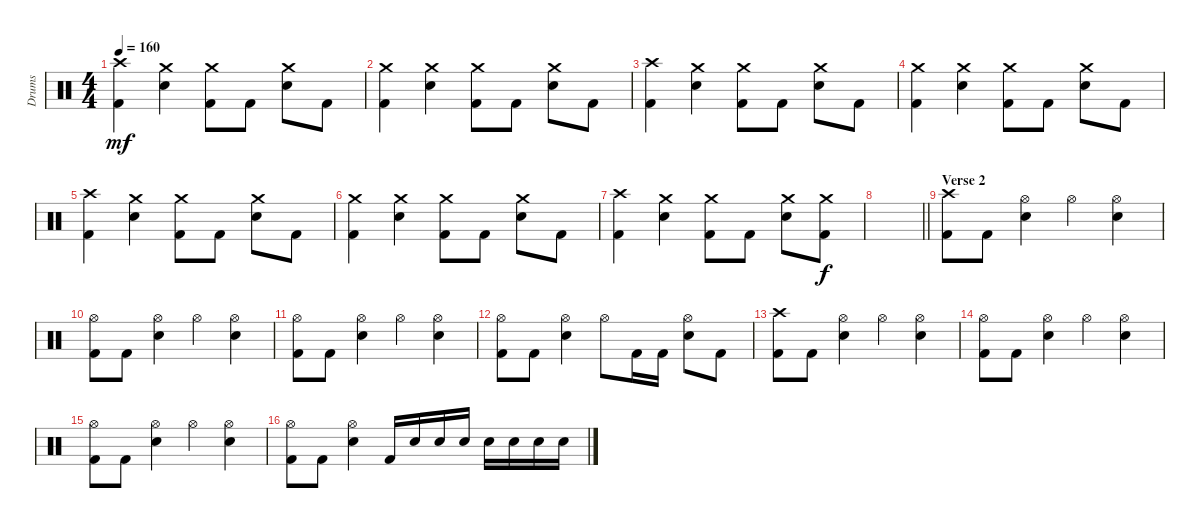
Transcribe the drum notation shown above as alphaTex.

\track ("Drums" "Drums") {instrument percussion}
\staff {score}
\articulation defaults
\ts (4 4)
\tempo 160
\clef neutral
\ks c
("Crash high (hit)" "Kick (hit) 2").4{dy mf} ("Crash medium (hit)" "Electric Snare (hit)").4 ("Crash medium (hit)" "Kick (hit) 2").8 "Kick (hit) 2".8 ("Crash medium (hit)" "Electric Snare (hit)").8 "Kick (hit) 2".8 |
("Crash medium (hit)" "Kick (hit) 2").4 ("Crash medium (hit)" "Electric Snare (hit)").4 ("Crash medium (hit)" "Kick (hit) 2").8 "Kick (hit) 2".8 ("Crash medium (hit)" "Electric Snare (hit)").8 "Kick (hit) 2".8 |
("Crash high (hit)" "Kick (hit) 2").4 ("Crash medium (hit)" "Electric Snare (hit)").4 ("Crash medium (hit)" "Kick (hit) 2").8 "Kick (hit) 2".8 ("Crash medium (hit)" "Electric Snare (hit)").8 "Kick (hit) 2".8 |
("Crash medium (hit)" "Kick (hit) 2").4 ("Crash medium (hit)" "Electric Snare (hit)").4 ("Crash medium (hit)" "Kick (hit) 2").8 "Kick (hit) 2".8 ("Crash medium (hit)" "Electric Snare (hit)").8 "Kick (hit) 2".8 |
("Crash high (hit)" "Kick (hit) 2").4 ("Crash medium (hit)" "Electric Snare (hit)").4 ("Crash medium (hit)" "Kick (hit) 2").8 "Kick (hit) 2".8 ("Crash medium (hit)" "Electric Snare (hit)").8 "Kick (hit) 2".8 |
("Crash medium (hit)" "Kick (hit) 2").4 ("Crash medium (hit)" "Electric Snare (hit)").4 ("Crash medium (hit)" "Kick (hit) 2").8 "Kick (hit) 2".8 ("Crash medium (hit)" "Electric Snare (hit)").8 "Kick (hit) 2".8 |
("Crash high (hit)" "Kick (hit) 2").4 ("Crash medium (hit)" "Electric Snare (hit)").4 ("Crash medium (hit)" "Kick (hit) 2").8 "Kick (hit) 2".8 ("Crash medium (hit)" "Electric Snare (hit)").8 ("Crash medium (hit)" "Kick (hit) 2").8{dy f} |
\barLineRight lightlight
|
\section ("" "Verse 2")
("Crash high (hit)" "Kick (hit) 2").8 "Kick (hit) 2".8 ("Hi-Hat (open)" "Electric Snare (hit)").4 "Hi-Hat (open)".4 ("Hi-Hat (open)" "Electric Snare (hit)").4 |
("Hi-Hat (open)" "Kick (hit) 2").8 "Kick (hit) 2".8 ("Hi-Hat (open)" "Electric Snare (hit)").4 "Hi-Hat (open)".4 ("Hi-Hat (open)" "Electric Snare (hit)").4 |
("Hi-Hat (open)" "Kick (hit) 2").8 "Kick (hit) 2".8 ("Hi-Hat (open)" "Electric Snare (hit)").4 "Hi-Hat (open)".4 ("Hi-Hat (open)" "Electric Snare (hit)").4 |
("Hi-Hat (open)" "Kick (hit) 2").8 "Kick (hit) 2".8 ("Hi-Hat (open)" "Electric Snare (hit)").4 "Hi-Hat (open)".8 "Kick (hit) 2".16 "Kick (hit) 2".16 ("Hi-Hat (open)" "Electric Snare (hit)").8 "Kick (hit) 2".8 |
("Crash high (hit)" "Kick (hit) 2").8 "Kick (hit) 2".8 ("Hi-Hat (open)" "Electric Snare (hit)").4 "Hi-Hat (open)".4 ("Hi-Hat (open)" "Electric Snare (hit)").4 |
("Hi-Hat (open)" "Kick (hit) 2").8 "Kick (hit) 2".8 ("Hi-Hat (open)" "Electric Snare (hit)").4 "Hi-Hat (open)".4 ("Hi-Hat (open)" "Electric Snare (hit)").4 |
("Hi-Hat (open)" "Kick (hit) 2").8 "Kick (hit) 2".8 ("Hi-Hat (open)" "Electric Snare (hit)").4 "Hi-Hat (open)".4 ("Hi-Hat (open)" "Electric Snare (hit)").4 |
("Hi-Hat (open)" "Kick (hit) 2").8 "Kick (hit) 2".8 ("Hi-Hat (open)" "Electric Snare (hit)").4 "Kick (hit) 2".16 "Electric Snare (hit)".16 "Electric Snare (hit)".16 "Electric Snare (hit)".16 "Electric Snare (hit)".16 "Electric Snare (hit)".16 "Electric Snare (hit)".16 "Electric Snare (hit)".16
